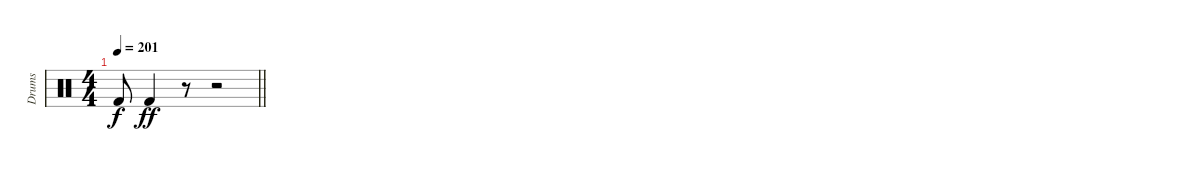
\track ("Drums" "Drums") {instrument percussion}
\staff {score}
\articulation defaults
\ts (4 4)
\tempo 201
\clef neutral
\barLineRight lightlight
\ks c "Kick (hit) 2"{t}.8{dy f} "Kick (hit) 2".4{dy ff}
r.8 r.2
